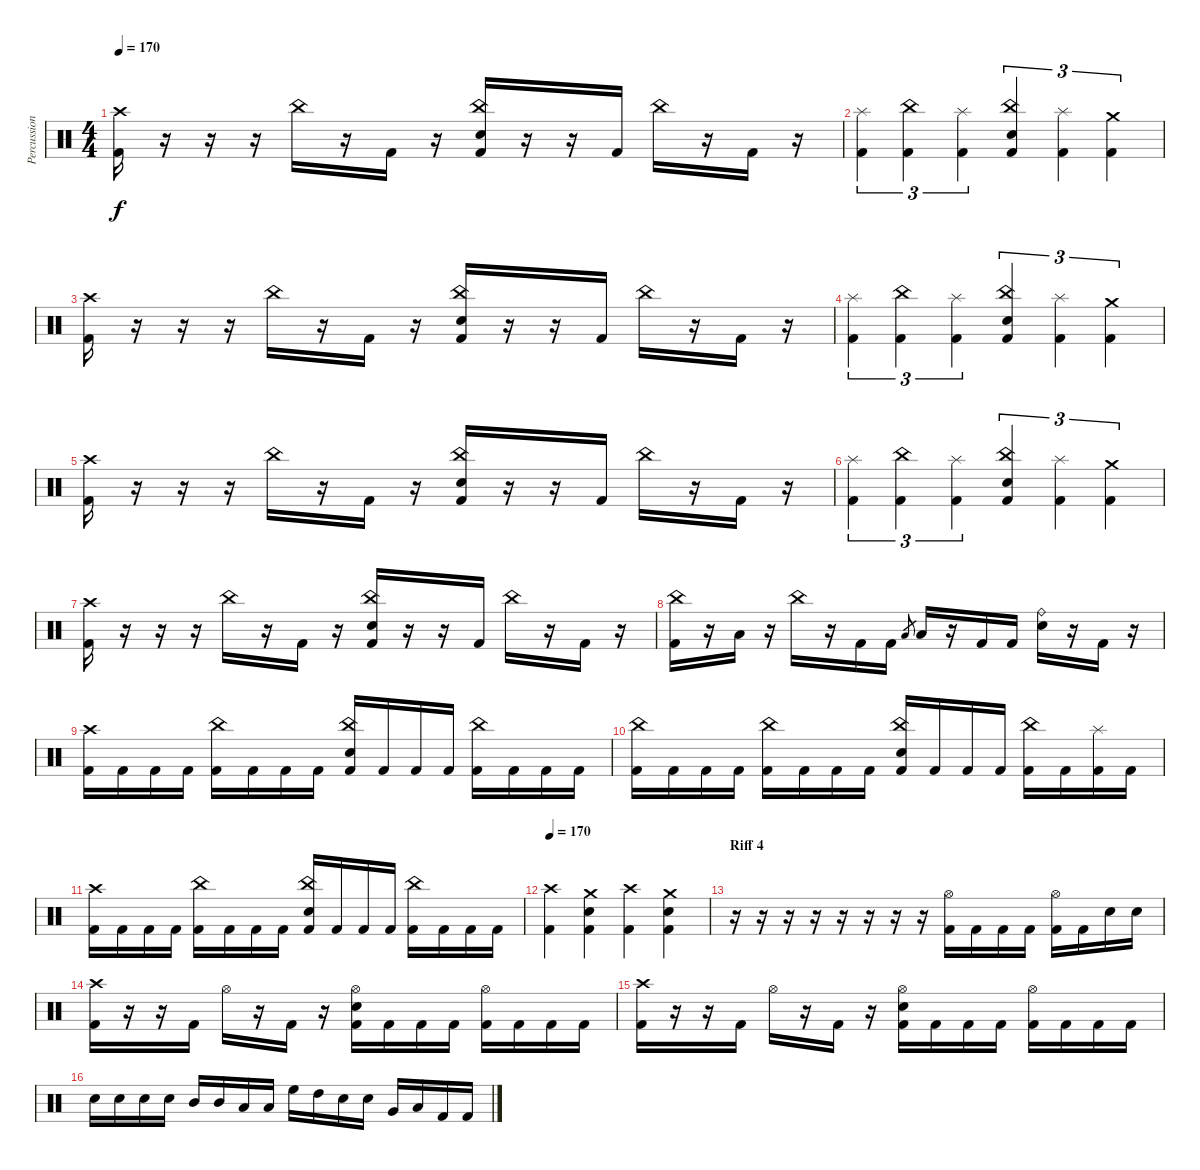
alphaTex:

\track ("Percussion" "Percussion") {instrument percussion}
\staff {score}
\articulation defaults
\ts (4 4)
\tempo 170
\clef neutral
\ks c
("Crash high (hit)" "Kick (hit) 2").16{dy f} r.16 r.16 r.16 "China (hit)".16 r.16 "Kick (hit) 2".16 r.16 ("China (hit)" "Electric Snare (hit)" "Kick (hit) 2").16 r.16 r.16 "Kick (hit) 2".16 "China (hit)".16 r.16 "Kick (hit) 2".16 r.16 |
("Splash (hit)" "Kick (hit) 2").4{tu (3 2)} ("China (hit)" "Kick (hit) 2").4{tu (3 2)} ("Splash (hit)" "Kick (hit) 2").4{tu (3 2)} ("China (hit)" "Electric Snare (hit)" "Kick (hit) 2").4{tu (3 2)} ("Splash (hit)" "Kick (hit) 2").4{tu (3 2)} ("Crash medium (hit)" "Kick (hit) 2").4{tu (3 2)} |
("Crash high (hit)" "Kick (hit) 2").16 r.16 r.16 r.16 "China (hit)".16 r.16 "Kick (hit) 2".16 r.16 ("China (hit)" "Electric Snare (hit)" "Kick (hit) 2").16 r.16 r.16 "Kick (hit) 2".16 "China (hit)".16 r.16 "Kick (hit) 2".16 r.16 |
("Splash (hit)" "Kick (hit) 2").4{tu (3 2)} ("China (hit)" "Kick (hit) 2").4{tu (3 2)} ("Splash (hit)" "Kick (hit) 2").4{tu (3 2)} ("China (hit)" "Electric Snare (hit)" "Kick (hit) 2").4{tu (3 2)} ("Splash (hit)" "Kick (hit) 2").4{tu (3 2)} ("Crash medium (hit)" "Kick (hit) 2").4{tu (3 2)} |
("Crash high (hit)" "Kick (hit) 2").16 r.16 r.16 r.16 "China (hit)".16 r.16 "Kick (hit) 2".16 r.16 ("China (hit)" "Electric Snare (hit)" "Kick (hit) 2").16 r.16 r.16 "Kick (hit) 2".16 "China (hit)".16 r.16 "Kick (hit) 2".16 r.16 |
("Splash (hit)" "Kick (hit) 2").4{tu (3 2)} ("China (hit)" "Kick (hit) 2").4{tu (3 2)} ("Splash (hit)" "Kick (hit) 2").4{tu (3 2)} ("China (hit)" "Electric Snare (hit)" "Kick (hit) 2").4{tu (3 2)} ("Splash (hit)" "Kick (hit) 2").4{tu (3 2)} ("Crash medium (hit)" "Kick (hit) 2").4{tu (3 2)} |
("Crash high (hit)" "Kick (hit) 2").16 r.16 r.16 r.16 "China (hit)".16 r.16 "Kick (hit) 2".16 r.16 ("China (hit)" "Electric Snare (hit)" "Kick (hit) 2").16 r.16 r.16 "Kick (hit) 2".16 "China (hit)".16 r.16 "Kick (hit) 2".16 r.16 |
("China (hit)" "Kick (hit) 2").16 r.16 "Low Tom (hit)".16 r.16 "China (hit)".16 r.16 "Kick (hit) 2".16 "Kick (hit) 2".16 "Low Tom (hit)".8{gr} "Low Tom (hit)".16 r.16 "Kick (hit) 2".16 "Kick (hit) 2".16 ("Ride (bell)" "Electric Snare (hit)").16 r.16 "Kick (hit) 2".16 r.16 |
("Crash high (hit)" "Kick (hit) 2").16 "Kick (hit) 2".16 "Kick (hit) 2".16 "Kick (hit) 2".16 ("China (hit)" "Kick (hit) 2").16 "Kick (hit) 2".16 "Kick (hit) 2".16 "Kick (hit) 2".16 ("China (hit)" "Electric Snare (hit)" "Kick (hit) 2").16 "Kick (hit) 2".16 "Kick (hit) 2".16 "Kick (hit) 2".16 ("China (hit)" "Kick (hit) 2").16 "Kick (hit) 2".16 "Kick (hit) 2".16 "Kick (hit) 2".16 |
("China (hit)" "Kick (hit) 2").16 "Kick (hit) 2".16 "Kick (hit) 2".16 "Kick (hit) 2".16 ("China (hit)" "Kick (hit) 2").16 "Kick (hit) 2".16 "Kick (hit) 2".16 "Kick (hit) 2".16 ("China (hit)" "Electric Snare (hit)" "Kick (hit) 2").16 "Kick (hit) 2".16 "Kick (hit) 2".16 "Kick (hit) 2".16 ("China (hit)" "Kick (hit) 2").16 "Kick (hit) 2".16 ("Splash (hit)" "Kick (hit) 2").16 "Kick (hit) 2".16 |
("Crash high (hit)" "Kick (hit) 2").16 "Kick (hit) 2".16 "Kick (hit) 2".16 "Kick (hit) 2".16 ("China (hit)" "Kick (hit) 2").16 "Kick (hit) 2".16 "Kick (hit) 2".16 "Kick (hit) 2".16 ("China (hit)" "Electric Snare (hit)" "Kick (hit) 2").16 "Kick (hit) 2".16 "Kick (hit) 2".16 "Kick (hit) 2".16 ("China (hit)" "Kick (hit) 2").16 "Kick (hit) 2".16 "Kick (hit) 2".16 "Kick (hit) 2".16 |
\tempo 170
("Crash high (hit)" "Kick (hit) 2").4 ("Crash medium (hit)" "Electric Snare (hit)" "Kick (hit) 2").4 ("Crash high (hit)" "Kick (hit) 2").4 ("Crash medium (hit)" "Electric Snare (hit)" "Kick (hit) 2").4 |
\section ("" "Riff 4")
r.16 r.16 r.16 r.16 r.16 r.16 r.16 r.16 ("Hi-Hat (open)" "Kick (hit) 2").16 "Kick (hit) 2".16 "Kick (hit) 2".16 "Kick (hit) 2".16 ("Hi-Hat (open)" "Kick (hit) 2").16 "Kick (hit) 2".16 "Electric Snare (hit)".16 "Electric Snare (hit)".16 |
("Crash high (hit)" "Kick (hit) 2").16 r.16 r.16 "Kick (hit) 2".16 "Hi-Hat (open)".16 r.16 "Kick (hit) 2".16 r.16 ("Hi-Hat (open)" "Electric Snare (hit)" "Kick (hit) 2").16 "Kick (hit) 2".16 "Kick (hit) 2".16 "Kick (hit) 2".16 ("Hi-Hat (open)" "Kick (hit) 2").16 "Kick (hit) 2".16 "Kick (hit) 2".16 "Kick (hit) 2".16 |
("Crash high (hit)" "Kick (hit) 2").16 r.16 r.16 "Kick (hit) 2".16 "Hi-Hat (open)".16 r.16 "Kick (hit) 2".16 r.16 ("Hi-Hat (open)" "Electric Snare (hit)" "Kick (hit) 2").16 "Kick (hit) 2".16 "Kick (hit) 2".16 "Kick (hit) 2".16 ("Hi-Hat (open)" "Kick (hit) 2").16 "Kick (hit) 2".16 "Kick (hit) 2".16 "Kick (hit) 2".16 |
"Electric Snare (hit)".16 "Electric Snare (hit)".16 "Electric Snare (hit)".16 "Electric Snare (hit)".16 "Mid Tom (hit)".16 "Mid Tom (hit)".16 "Low Tom (hit)".16 "Low Tom (hit)".16 "High Floor Tom (hit)".16 "High Tom (hit)".16 "Electric Snare (hit)".16 "Electric Snare (hit)".16 "Very Low Tom (hit)".16 "Low Floor Tom (hit)".16 "Kick (hit) 2".16 "Kick (hit) 2".16
